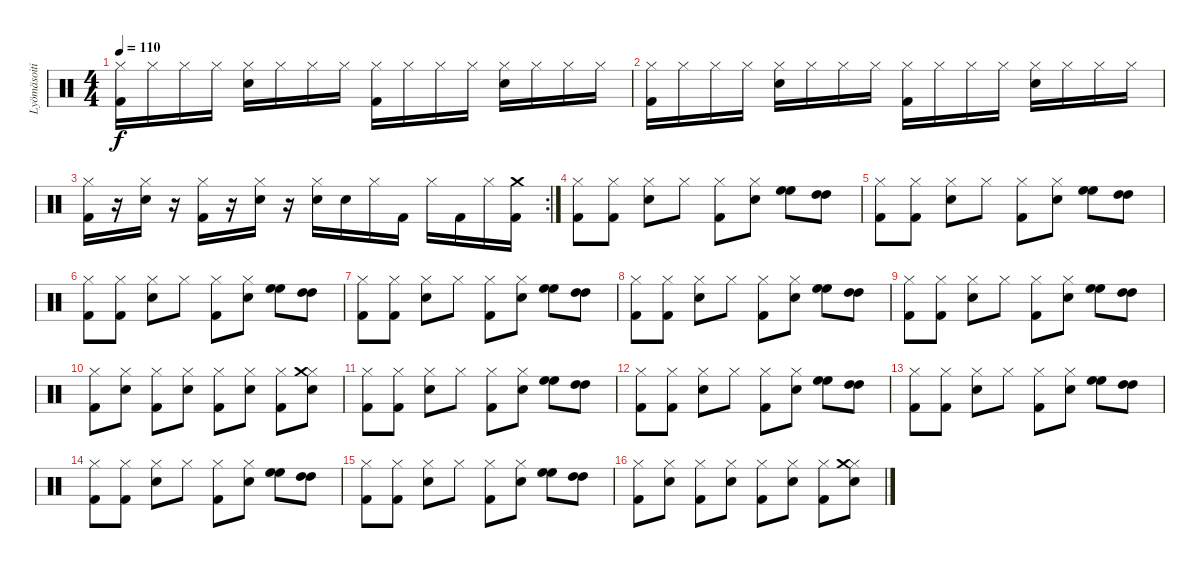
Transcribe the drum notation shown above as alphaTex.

\track ("Lyömäsoitin" "Lyömäsoiti") {instrument percussion}
\staff {score}
\articulation defaults
\ts (4 4)
\tempo 110
\clef neutral
\ks c
("Hi-Hat (closed)" "Kick (hit) 2").16{dy f} "Hi-Hat (closed)".16 "Hi-Hat (closed)".16 "Hi-Hat (closed)".16 ("Hi-Hat (closed)" "Snare (hit) 2").16 "Hi-Hat (closed)".16 "Hi-Hat (closed)".16 "Hi-Hat (closed)".16 ("Hi-Hat (closed)" "Kick (hit) 2").16 "Hi-Hat (closed)".16 "Hi-Hat (closed)".16 "Hi-Hat (closed)".16 ("Hi-Hat (closed)" "Snare (hit) 2").16 "Hi-Hat (closed)".16 "Hi-Hat (closed)".16 "Hi-Hat (closed)".16 |
("Hi-Hat (closed)" "Kick (hit) 2").16 "Hi-Hat (closed)".16 "Hi-Hat (closed)".16 "Hi-Hat (closed)".16 ("Hi-Hat (closed)" "Snare (hit) 2").16 "Hi-Hat (closed)".16 "Hi-Hat (closed)".16 "Hi-Hat (closed)".16 ("Hi-Hat (closed)" "Kick (hit) 2").16 "Hi-Hat (closed)".16 "Hi-Hat (closed)".16 "Hi-Hat (closed)".16 ("Hi-Hat (closed)" "Snare (hit) 2").16 "Hi-Hat (closed)".16 "Hi-Hat (closed)".16 "Hi-Hat (closed)".16 |
\rc 2
("Hi-Hat (closed)" "Kick (hit) 2").16 r.16 ("Hi-Hat (closed)" "Snare (hit) 2").16 r.16 ("Hi-Hat (closed)" "Kick (hit) 2").16 r.16 ("Hi-Hat (closed)" "Snare (hit) 2").16 r.16 ("Hi-Hat (closed)" "Snare (hit) 2").16 "Snare (hit) 2".16 "Hi-Hat (closed)".16 "Kick (hit) 2".16 "Hi-Hat (closed)".16 "Kick (hit) 2".16 "Hi-Hat (closed)".16 ("Crash medium (hit)" "Kick (hit) 2").16 |
("Hi-Hat (closed)" "Kick (hit) 2").8 ("Hi-Hat (closed)" "Kick (hit) 2").8 ("Hi-Hat (closed)" "Snare (hit) 2").8 "Hi-Hat (closed)".8 ("Hi-Hat (closed)" "Kick (hit) 2").8 ("Hi-Hat (closed)" "Snare (hit) 2").8 ("High Floor Tom (hit)" "High Floor Tom (hit)").8 ("High Tom (hit)" "High Tom (hit)").8 |
("Hi-Hat (closed)" "Kick (hit) 2").8 ("Hi-Hat (closed)" "Kick (hit) 2").8 ("Hi-Hat (closed)" "Snare (hit) 2").8 "Hi-Hat (closed)".8 ("Hi-Hat (closed)" "Kick (hit) 2").8 ("Hi-Hat (closed)" "Snare (hit) 2").8 ("High Floor Tom (hit)" "High Floor Tom (hit)").8 ("High Tom (hit)" "High Tom (hit)").8 |
("Hi-Hat (closed)" "Kick (hit) 2").8 ("Hi-Hat (closed)" "Kick (hit) 2").8 ("Hi-Hat (closed)" "Snare (hit) 2").8 "Hi-Hat (closed)".8 ("Hi-Hat (closed)" "Kick (hit) 2").8 ("Hi-Hat (closed)" "Snare (hit) 2").8 ("High Floor Tom (hit)" "High Floor Tom (hit)").8 ("High Tom (hit)" "High Tom (hit)").8 |
("Hi-Hat (closed)" "Kick (hit) 2").8 ("Hi-Hat (closed)" "Kick (hit) 2").8 ("Hi-Hat (closed)" "Snare (hit) 2").8 "Hi-Hat (closed)".8 ("Hi-Hat (closed)" "Kick (hit) 2").8 ("Hi-Hat (closed)" "Snare (hit) 2").8 ("High Floor Tom (hit)" "High Floor Tom (hit)").8 ("High Tom (hit)" "High Tom (hit)").8 |
("Hi-Hat (closed)" "Kick (hit) 2").8 ("Hi-Hat (closed)" "Kick (hit) 2").8 ("Hi-Hat (closed)" "Snare (hit) 2").8 "Hi-Hat (closed)".8 ("Hi-Hat (closed)" "Kick (hit) 2").8 ("Hi-Hat (closed)" "Snare (hit) 2").8 ("High Floor Tom (hit)" "High Floor Tom (hit)").8 ("High Tom (hit)" "High Tom (hit)").8 |
("Hi-Hat (closed)" "Kick (hit) 2").8 ("Hi-Hat (closed)" "Kick (hit) 2").8 ("Hi-Hat (closed)" "Snare (hit) 2").8 "Hi-Hat (closed)".8 ("Hi-Hat (closed)" "Kick (hit) 2").8 ("Hi-Hat (closed)" "Snare (hit) 2").8 ("High Floor Tom (hit)" "High Floor Tom (hit)").8 ("High Tom (hit)" "High Tom (hit)").8 |
("Hi-Hat (closed)" "Kick (hit) 2").8 ("Hi-Hat (closed)" "Snare (hit) 2").8 ("Hi-Hat (closed)" "Kick (hit) 2").8 ("Hi-Hat (closed)" "Snare (hit) 2").8 ("Hi-Hat (closed)" "Kick (hit) 2").8 ("Hi-Hat (closed)" "Snare (hit) 2").8 ("Hi-Hat (closed)" "Kick (hit) 2").8 ("Hi-Hat (closed)" "Snare (hit) 2" "Crash medium (hit)").8 |
("Hi-Hat (closed)" "Kick (hit) 2").8 ("Hi-Hat (closed)" "Kick (hit) 2").8 ("Hi-Hat (closed)" "Snare (hit) 2").8 "Hi-Hat (closed)".8 ("Hi-Hat (closed)" "Kick (hit) 2").8 ("Hi-Hat (closed)" "Snare (hit) 2").8 ("High Floor Tom (hit)" "High Floor Tom (hit)").8 ("High Tom (hit)" "High Tom (hit)").8 |
("Hi-Hat (closed)" "Kick (hit) 2").8 ("Hi-Hat (closed)" "Kick (hit) 2").8 ("Hi-Hat (closed)" "Snare (hit) 2").8 "Hi-Hat (closed)".8 ("Hi-Hat (closed)" "Kick (hit) 2").8 ("Hi-Hat (closed)" "Snare (hit) 2").8 ("High Floor Tom (hit)" "High Floor Tom (hit)").8 ("High Tom (hit)" "High Tom (hit)").8 |
("Hi-Hat (closed)" "Kick (hit) 2").8 ("Hi-Hat (closed)" "Kick (hit) 2").8 ("Hi-Hat (closed)" "Snare (hit) 2").8 "Hi-Hat (closed)".8 ("Hi-Hat (closed)" "Kick (hit) 2").8 ("Hi-Hat (closed)" "Snare (hit) 2").8 ("High Floor Tom (hit)" "High Floor Tom (hit)").8 ("High Tom (hit)" "High Tom (hit)").8 |
("Hi-Hat (closed)" "Kick (hit) 2").8 ("Hi-Hat (closed)" "Kick (hit) 2").8 ("Hi-Hat (closed)" "Snare (hit) 2").8 "Hi-Hat (closed)".8 ("Hi-Hat (closed)" "Kick (hit) 2").8 ("Hi-Hat (closed)" "Snare (hit) 2").8 ("High Floor Tom (hit)" "High Floor Tom (hit)").8 ("High Tom (hit)" "High Tom (hit)").8 |
("Hi-Hat (closed)" "Kick (hit) 2").8 ("Hi-Hat (closed)" "Kick (hit) 2").8 ("Hi-Hat (closed)" "Snare (hit) 2").8 "Hi-Hat (closed)".8 ("Hi-Hat (closed)" "Kick (hit) 2").8 ("Hi-Hat (closed)" "Snare (hit) 2").8 ("High Floor Tom (hit)" "High Floor Tom (hit)").8 ("High Tom (hit)" "High Tom (hit)").8 |
("Hi-Hat (closed)" "Kick (hit) 2").8 ("Hi-Hat (closed)" "Snare (hit) 2").8 ("Hi-Hat (closed)" "Kick (hit) 2").8 ("Hi-Hat (closed)" "Snare (hit) 2").8 ("Hi-Hat (closed)" "Kick (hit) 2").8 ("Hi-Hat (closed)" "Snare (hit) 2").8 ("Hi-Hat (closed)" "Kick (hit) 2").8 ("Hi-Hat (closed)" "Snare (hit) 2" "Crash medium (hit)").8
